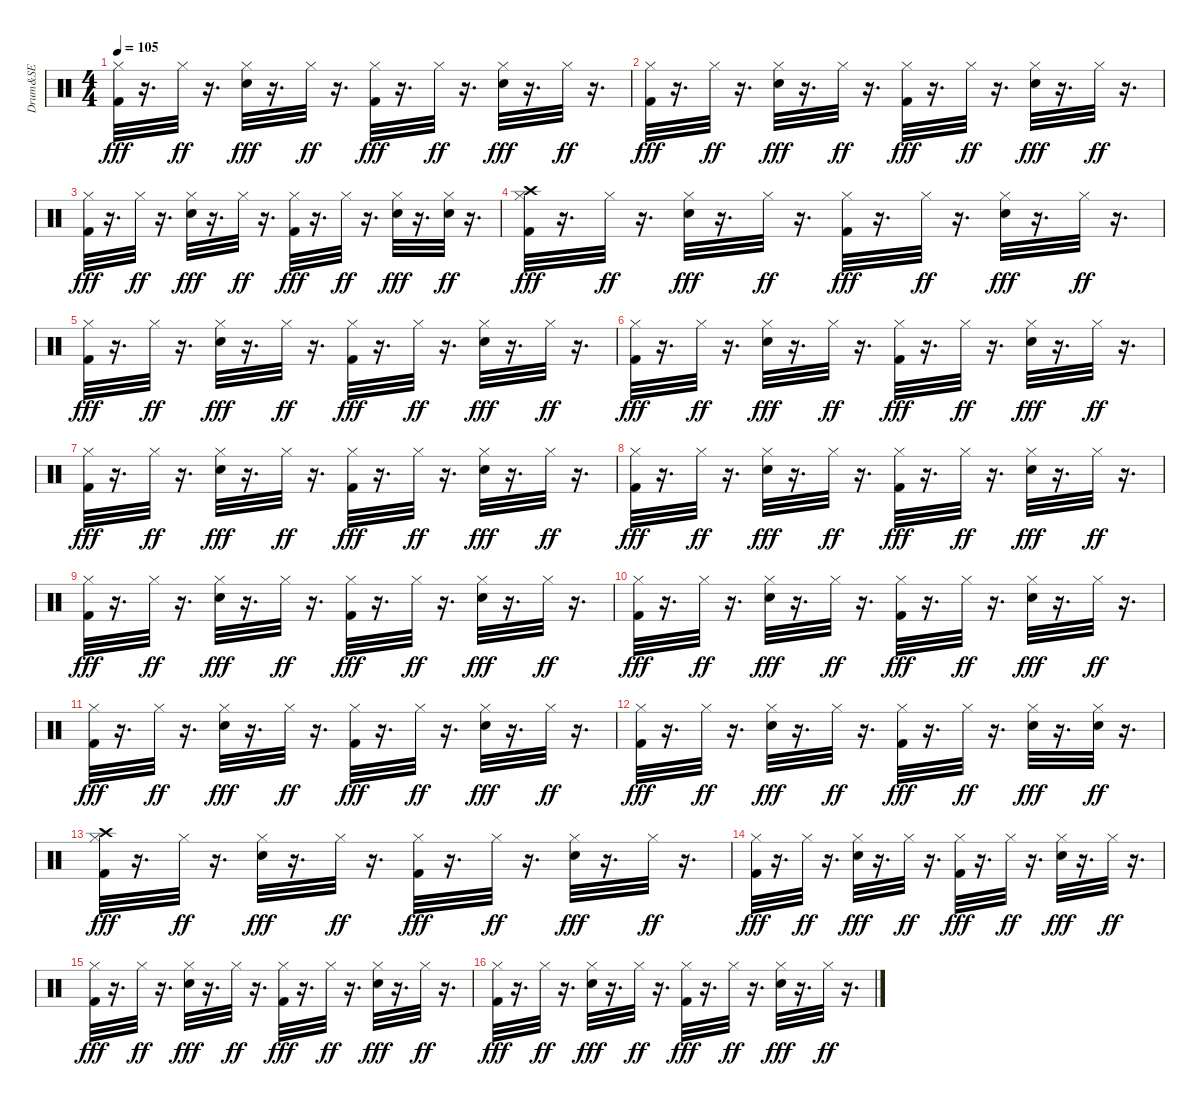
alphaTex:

\track ("Drum&SE" "Drum&SE") {instrument percussion}
\staff {score}
\articulation defaults
\ts (4 4)
\tempo 105
\clef neutral
\ks c
("Kick (hit) 2" "Hi-Hat (closed)").32{dy fff} r.16{d} "Hi-Hat (closed)".32{dy ff} r.16{d} ("Snare (hit) 2" "Hi-Hat (closed)").32{dy fff} r.16{d} "Hi-Hat (closed)".32{dy ff} r.16{d} ("Kick (hit) 2" "Hi-Hat (closed)").32{dy fff} r.16{d} "Hi-Hat (closed)".32{dy ff} r.16{d} ("Snare (hit) 2" "Hi-Hat (closed)").32{dy fff} r.16{d} "Hi-Hat (closed)".32{dy ff} r.16{d} |
("Kick (hit) 2" "Hi-Hat (closed)").32{dy fff} r.16{d} "Hi-Hat (closed)".32{dy ff} r.16{d} ("Snare (hit) 2" "Hi-Hat (closed)").32{dy fff} r.16{d} "Hi-Hat (closed)".32{dy ff} r.16{d} ("Kick (hit) 2" "Hi-Hat (closed)").32{dy fff} r.16{d} "Hi-Hat (closed)".32{dy ff} r.16{d} ("Snare (hit) 2" "Hi-Hat (closed)").32{dy fff} r.16{d} "Hi-Hat (closed)".32{dy ff} r.16{d} |
("Kick (hit) 2" "Hi-Hat (closed)").32{dy fff} r.16{d} "Hi-Hat (closed)".32{dy ff} r.16{d} ("Snare (hit) 2" "Hi-Hat (closed)").32{dy fff} r.16{d} "Hi-Hat (closed)".32{dy ff} r.16{d} ("Kick (hit) 2" "Hi-Hat (closed)").32{dy fff} r.16{d} "Hi-Hat (closed)".32{dy ff} r.16{d} ("Snare (hit) 2" "Hi-Hat (closed)").32{dy fff} r.16{d} ("Snare (hit) 2" "Hi-Hat (closed)").32{dy ff} r.16{d} |
("Kick (hit) 2" "Hi-Hat (closed)" "Crash high (hit)").32{dy fff} r.16{d} "Hi-Hat (closed)".32{dy ff volume 9} r.16{d} ("Snare (hit) 2" "Hi-Hat (closed)").32{dy fff volume 9} r.16{d} "Hi-Hat (closed)".32{dy ff} r.16{d} ("Kick (hit) 2" "Hi-Hat (closed)").32{dy fff} r.16{d} "Hi-Hat (closed)".32{dy ff} r.16{d} ("Snare (hit) 2" "Hi-Hat (closed)").32{dy fff} r.16{d} "Hi-Hat (closed)".32{dy ff} r.16{d} |
("Kick (hit) 2" "Hi-Hat (closed)").32{dy fff} r.16{d} "Hi-Hat (closed)".32{dy ff} r.16{d} ("Snare (hit) 2" "Hi-Hat (closed)").32{dy fff} r.16{d} "Hi-Hat (closed)".32{dy ff} r.16{d} ("Kick (hit) 2" "Hi-Hat (closed)").32{dy fff} r.16{d} "Hi-Hat (closed)".32{dy ff} r.16{d} ("Snare (hit) 2" "Hi-Hat (closed)").32{dy fff} r.16{d} "Hi-Hat (closed)".32{dy ff} r.16{d} |
("Kick (hit) 2" "Hi-Hat (closed)").32{dy fff} r.16{d} "Hi-Hat (closed)".32{dy ff} r.16{d} ("Snare (hit) 2" "Hi-Hat (closed)").32{dy fff} r.16{d} "Hi-Hat (closed)".32{dy ff} r.16{d} ("Kick (hit) 2" "Hi-Hat (closed)").32{dy fff} r.16{d} "Hi-Hat (closed)".32{dy ff} r.16{d} ("Snare (hit) 2" "Hi-Hat (closed)").32{dy fff} r.16{d} "Hi-Hat (closed)".32{dy ff} r.16{d} |
("Kick (hit) 2" "Hi-Hat (closed)").32{dy fff} r.16{d} "Hi-Hat (closed)".32{dy ff} r.16{d} ("Snare (hit) 2" "Hi-Hat (closed)").32{dy fff} r.16{d} "Hi-Hat (closed)".32{dy ff} r.16{d} ("Kick (hit) 2" "Hi-Hat (closed)").32{dy fff} r.16{d} "Hi-Hat (closed)".32{dy ff} r.16{d} ("Snare (hit) 2" "Hi-Hat (closed)").32{dy fff} r.16{d} "Hi-Hat (closed)".32{dy ff} r.16{d} |
("Kick (hit) 2" "Hi-Hat (closed)").32{dy fff} r.16{d} "Hi-Hat (closed)".32{dy ff} r.16{d} ("Snare (hit) 2" "Hi-Hat (closed)").32{dy fff} r.16{d} "Hi-Hat (closed)".32{dy ff} r.16{d} ("Kick (hit) 2" "Hi-Hat (closed)").32{dy fff} r.16{d} "Hi-Hat (closed)".32{dy ff} r.16{d} ("Snare (hit) 2" "Hi-Hat (closed)").32{dy fff} r.16{d} "Hi-Hat (closed)".32{dy ff} r.16{d} |
("Kick (hit) 2" "Hi-Hat (closed)").32{dy fff} r.16{d} "Hi-Hat (closed)".32{dy ff} r.16{d} ("Snare (hit) 2" "Hi-Hat (closed)").32{dy fff} r.16{d} "Hi-Hat (closed)".32{dy ff} r.16{d} ("Kick (hit) 2" "Hi-Hat (closed)").32{dy fff} r.16{d} "Hi-Hat (closed)".32{dy ff} r.16{d} ("Snare (hit) 2" "Hi-Hat (closed)").32{dy fff} r.16{d} "Hi-Hat (closed)".32{dy ff} r.16{d} |
("Kick (hit) 2" "Hi-Hat (closed)").32{dy fff} r.16{d} "Hi-Hat (closed)".32{dy ff} r.16{d} ("Snare (hit) 2" "Hi-Hat (closed)").32{dy fff} r.16{d} "Hi-Hat (closed)".32{dy ff} r.16{d} ("Kick (hit) 2" "Hi-Hat (closed)").32{dy fff} r.16{d} "Hi-Hat (closed)".32{dy ff} r.16{d} ("Snare (hit) 2" "Hi-Hat (closed)").32{dy fff} r.16{d} "Hi-Hat (closed)".32{dy ff} r.16{d} |
("Kick (hit) 2" "Hi-Hat (closed)").32{dy fff} r.16{d} "Hi-Hat (closed)".32{dy ff} r.16{d} ("Snare (hit) 2" "Hi-Hat (closed)").32{dy fff} r.16{d} "Hi-Hat (closed)".32{dy ff} r.16{d} ("Kick (hit) 2" "Hi-Hat (closed)").32{dy fff} r.16{d} "Hi-Hat (closed)".32{dy ff} r.16{d} ("Snare (hit) 2" "Hi-Hat (closed)").32{dy fff} r.16{d} "Hi-Hat (closed)".32{dy ff} r.16{d} |
("Kick (hit) 2" "Hi-Hat (closed)").32{dy fff} r.16{d} "Hi-Hat (closed)".32{dy ff} r.16{d} ("Snare (hit) 2" "Hi-Hat (closed)").32{dy fff} r.16{d} "Hi-Hat (closed)".32{dy ff} r.16{d} ("Kick (hit) 2" "Hi-Hat (closed)").32{dy fff} r.16{d} "Hi-Hat (closed)".32{dy ff} r.16{d} ("Snare (hit) 2" "Hi-Hat (closed)").32{dy fff} r.16{d} ("Snare (hit) 2" "Hi-Hat (closed)").32{dy ff} r.16{d} |
("Kick (hit) 2" "Hi-Hat (closed)" "Crash high (hit)").32{dy fff} r.16{d} "Hi-Hat (closed)".32{dy ff} r.16{d} ("Snare (hit) 2" "Hi-Hat (closed)").32{dy fff} r.16{d} "Hi-Hat (closed)".32{dy ff} r.16{d} ("Kick (hit) 2" "Hi-Hat (closed)").32{dy fff} r.16{d} "Hi-Hat (closed)".32{dy ff} r.16{d} ("Snare (hit) 2" "Hi-Hat (closed)").32{dy fff} r.16{d} "Hi-Hat (closed)".32{dy ff} r.16{d} |
("Kick (hit) 2" "Hi-Hat (closed)").32{dy fff} r.16{d} "Hi-Hat (closed)".32{dy ff} r.16{d} ("Snare (hit) 2" "Hi-Hat (closed)").32{dy fff} r.16{d} "Hi-Hat (closed)".32{dy ff} r.16{d} ("Kick (hit) 2" "Hi-Hat (closed)").32{dy fff} r.16{d} "Hi-Hat (closed)".32{dy ff} r.16{d} ("Snare (hit) 2" "Hi-Hat (closed)").32{dy fff} r.16{d} "Hi-Hat (closed)".32{dy ff} r.16{d} |
("Kick (hit) 2" "Hi-Hat (closed)").32{dy fff} r.16{d} "Hi-Hat (closed)".32{dy ff} r.16{d} ("Snare (hit) 2" "Hi-Hat (closed)").32{dy fff} r.16{d} "Hi-Hat (closed)".32{dy ff} r.16{d} ("Kick (hit) 2" "Hi-Hat (closed)").32{dy fff} r.16{d} "Hi-Hat (closed)".32{dy ff} r.16{d} ("Snare (hit) 2" "Hi-Hat (closed)").32{dy fff} r.16{d} "Hi-Hat (closed)".32{dy ff} r.16{d} |
("Kick (hit) 2" "Hi-Hat (closed)").32{dy fff} r.16{d} "Hi-Hat (closed)".32{dy ff} r.16{d} ("Snare (hit) 2" "Hi-Hat (closed)").32{dy fff} r.16{d} "Hi-Hat (closed)".32{dy ff} r.16{d} ("Kick (hit) 2" "Hi-Hat (closed)").32{dy fff} r.16{d} "Hi-Hat (closed)".32{dy ff} r.16{d} ("Snare (hit) 2" "Hi-Hat (closed)").32{dy fff} r.16{d} "Hi-Hat (closed)".32{dy ff} r.16{d}
